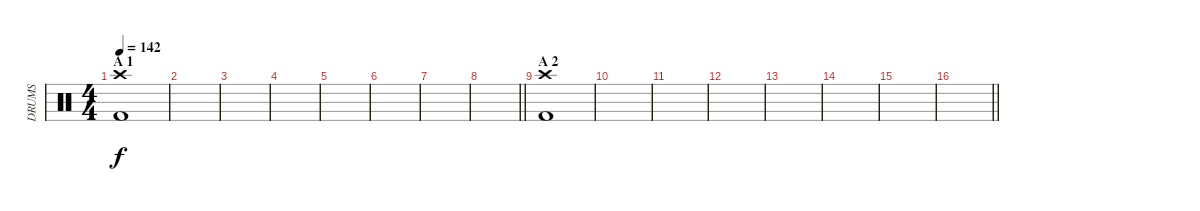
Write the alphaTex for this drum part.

\track ("DRUMS" "DRUMS") {instrument percussion}
\staff {score}
\articulation defaults
\ts (4 4)
\section ("" "A 1")
\tempo 142
\clef neutral
\ks c
("Crash high (hit)" "Kick (hit) 2").1{dy f} |
|
|
|
|
|
|
\barLineRight lightlight
|
\section ("" "A 2")
("Crash high (hit)" "Kick (hit) 2").1 |
|
|
|
|
|
|
\barLineRight lightlight
